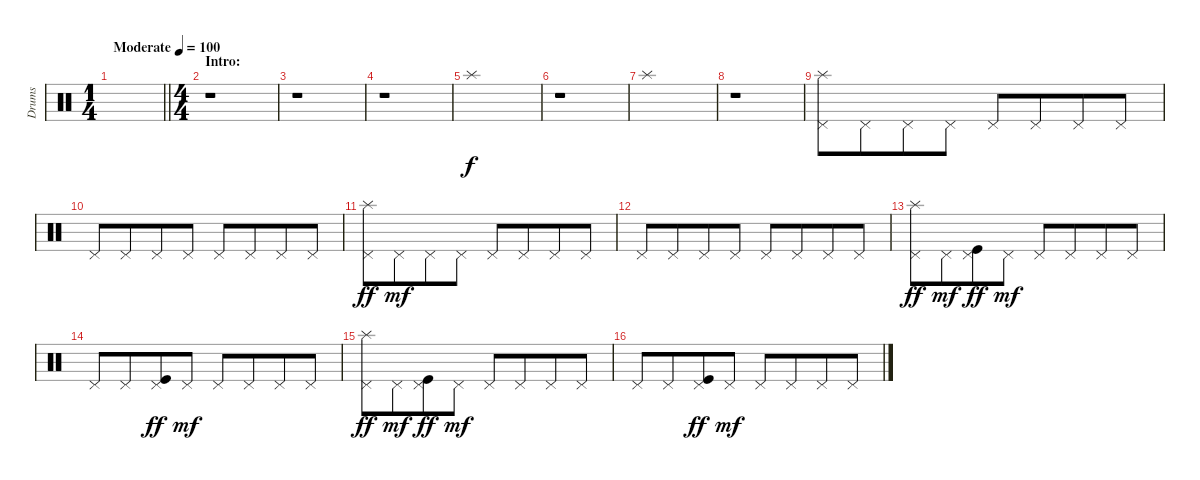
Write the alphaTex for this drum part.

\track ("Drums" "Drums") {instrument percussion}
\staff {score}
\articulation defaults
\ts (1 4)
\tempo (100 "Moderate")
\clef neutral
\barLineRight lightlight
\ks c
|
\ts (4 4)
\section ("" "Intro:")
r.1 |
r.1 |
r.1 |
"Splash (hit)".1 |
r.1 |
"Splash (hit)".1 |
r.1 |
("Pedal Hi-Hat (hit)" "Splash (hit)").8 "Pedal Hi-Hat (hit)".8{beam merge} "Pedal Hi-Hat (hit)".8 "Pedal Hi-Hat (hit)".8 "Pedal Hi-Hat (hit)".8 "Pedal Hi-Hat (hit)".8{beam merge} "Pedal Hi-Hat (hit)".8 "Pedal Hi-Hat (hit)".8 |
"Pedal Hi-Hat (hit)".8 "Pedal Hi-Hat (hit)".8{beam merge} "Pedal Hi-Hat (hit)".8 "Pedal Hi-Hat (hit)".8 "Pedal Hi-Hat (hit)".8 "Pedal Hi-Hat (hit)".8{beam merge} "Pedal Hi-Hat (hit)".8 "Pedal Hi-Hat (hit)".8 |
("Pedal Hi-Hat (hit)" "Splash (hit)").8{dy ff} "Pedal Hi-Hat (hit)".8{dy mf beam merge} "Pedal Hi-Hat (hit)".8 "Pedal Hi-Hat (hit)".8 "Pedal Hi-Hat (hit)".8 "Pedal Hi-Hat (hit)".8{beam merge} "Pedal Hi-Hat (hit)".8 "Pedal Hi-Hat (hit)".8 |
"Pedal Hi-Hat (hit)".8 "Pedal Hi-Hat (hit)".8{beam merge} "Pedal Hi-Hat (hit)".8 "Pedal Hi-Hat (hit)".8 "Pedal Hi-Hat (hit)".8 "Pedal Hi-Hat (hit)".8{beam merge} "Pedal Hi-Hat (hit)".8 "Pedal Hi-Hat (hit)".8 |
("Pedal Hi-Hat (hit)" "Splash (hit)").8{dy ff} "Pedal Hi-Hat (hit)".8{dy mf beam merge} ("Pedal Hi-Hat (hit)" "Kick (hit)").8{dy ff} "Pedal Hi-Hat (hit)".8{dy mf} "Pedal Hi-Hat (hit)".8 "Pedal Hi-Hat (hit)".8{beam merge} "Pedal Hi-Hat (hit)".8 "Pedal Hi-Hat (hit)".8 |
"Pedal Hi-Hat (hit)".8 "Pedal Hi-Hat (hit)".8{beam merge} ("Pedal Hi-Hat (hit)" "Kick (hit)").8{dy ff} "Pedal Hi-Hat (hit)".8{dy mf} "Pedal Hi-Hat (hit)".8 "Pedal Hi-Hat (hit)".8{beam merge} "Pedal Hi-Hat (hit)".8 "Pedal Hi-Hat (hit)".8 |
("Pedal Hi-Hat (hit)" "Splash (hit)").8{dy ff} "Pedal Hi-Hat (hit)".8{dy mf beam merge} ("Pedal Hi-Hat (hit)" "Kick (hit)").8{dy ff} "Pedal Hi-Hat (hit)".8{dy mf} "Pedal Hi-Hat (hit)".8 "Pedal Hi-Hat (hit)".8{beam merge} "Pedal Hi-Hat (hit)".8 "Pedal Hi-Hat (hit)".8 |
"Pedal Hi-Hat (hit)".8 "Pedal Hi-Hat (hit)".8{beam merge} ("Pedal Hi-Hat (hit)" "Kick (hit)").8{dy ff} "Pedal Hi-Hat (hit)".8{dy mf} "Pedal Hi-Hat (hit)".8 "Pedal Hi-Hat (hit)".8{beam merge} "Pedal Hi-Hat (hit)".8 "Pedal Hi-Hat (hit)".8
